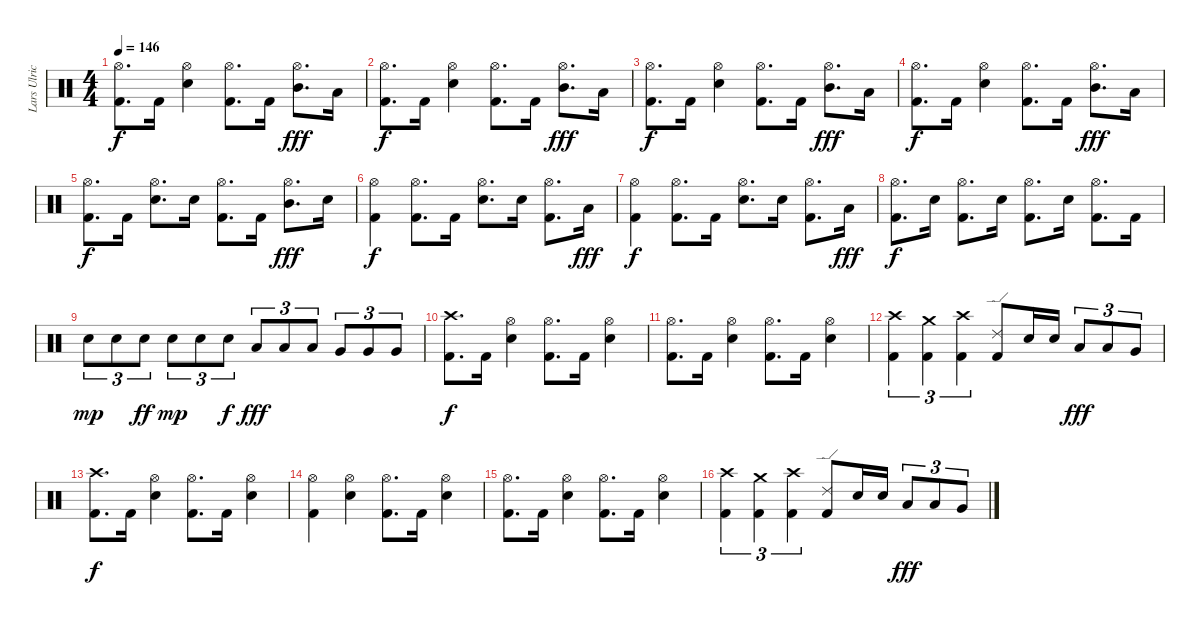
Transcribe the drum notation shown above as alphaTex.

\track ("Lars Ulrich" "Lars Ulric") {instrument percussion}
\staff {score}
\articulation defaults
\ts (4 4)
\tempo 146
\clef neutral
\ks c
("Hi-Hat (open)" "Kick (hit) 2").8{d dy f} "Kick (hit) 2".16 ("Hi-Hat (open)" "Electric Snare (hit)").4 ("Hi-Hat (open)" "Kick (hit) 2").8{d} "Kick (hit) 2".16 ("Hi-Hat (open)" "Mid Tom (hit)").8{d dy fff} "Low Tom (hit)".16 |
("Hi-Hat (open)" "Kick (hit) 2").8{d dy f} "Kick (hit) 2".16 ("Hi-Hat (open)" "Electric Snare (hit)").4 ("Hi-Hat (open)" "Kick (hit) 2").8{d} "Kick (hit) 2".16 ("Hi-Hat (open)" "Mid Tom (hit)").8{d dy fff} "Low Tom (hit)".16 |
("Hi-Hat (open)" "Kick (hit) 2").8{d dy f} "Kick (hit) 2".16 ("Hi-Hat (open)" "Electric Snare (hit)").4 ("Hi-Hat (open)" "Kick (hit) 2").8{d} "Kick (hit) 2".16 ("Hi-Hat (open)" "Mid Tom (hit)").8{d dy fff} "Low Tom (hit)".16 |
("Hi-Hat (open)" "Kick (hit) 2").8{d dy f} "Kick (hit) 2".16 ("Hi-Hat (open)" "Electric Snare (hit)").4 ("Hi-Hat (open)" "Kick (hit) 2").8{d} "Kick (hit) 2".16 ("Hi-Hat (open)" "Mid Tom (hit)").8{d dy fff} "Low Tom (hit)".16 |
("Hi-Hat (open)" "Kick (hit) 2").8{d dy f} "Kick (hit) 2".16 ("Hi-Hat (open)" "Electric Snare (hit)").8{d} "Electric Snare (hit)".16 ("Hi-Hat (open)" "Kick (hit) 2").8{d} "Kick (hit) 2".16 ("Hi-Hat (open)" "Mid Tom (hit)").8{d dy fff} "Electric Snare (hit)".16 |
("Hi-Hat (open)" "Kick (hit) 2").4{dy f} ("Hi-Hat (open)" "Kick (hit) 2").8{d} "Kick (hit) 2".16 ("Hi-Hat (open)" "Electric Snare (hit)").8{d} "Electric Snare (hit)".16 ("Hi-Hat (open)" "Kick (hit) 2").8{d} "Low Tom (hit)".16{dy fff} |
("Hi-Hat (open)" "Kick (hit) 2").4{dy f} ("Hi-Hat (open)" "Kick (hit) 2").8{d} "Kick (hit) 2".16 ("Hi-Hat (open)" "Electric Snare (hit)").8{d} "Electric Snare (hit)".16 ("Hi-Hat (open)" "Kick (hit) 2").8{d} "Low Tom (hit)".16{dy fff} |
("Hi-Hat (open)" "Kick (hit) 2").8{d dy f} "Electric Snare (hit)".16 ("Hi-Hat (open)" "Kick (hit) 2").8{d} "Electric Snare (hit)".16 ("Hi-Hat (open)" "Kick (hit) 2").8{d} "Electric Snare (hit)".16 ("Hi-Hat (open)" "Kick (hit) 2").8{d} "Kick (hit) 2".16 |
"Electric Snare (hit)".8{tu (3 2) dy mp} "Electric Snare (hit)".8{tu (3 2)} "Electric Snare (hit)".8{tu (3 2) dy ff} "Electric Snare (hit)".8{tu (3 2) dy mp} "Electric Snare (hit)".8{tu (3 2)} "Electric Snare (hit)".8{tu (3 2) dy f} "Low Tom (hit)".8{tu (3 2) dy fff} "Low Tom (hit)".8{tu (3 2)} "Low Tom (hit)".8{tu (3 2)} "Very Low Tom (hit)".8{tu (3 2)} "Very Low Tom (hit)".8{tu (3 2)} "Very Low Tom (hit)".8{tu (3 2)} |
("Crash high (hit)" "Kick (hit) 2").8{d dy f} "Kick (hit) 2".16 ("Hi-Hat (open)" "Electric Snare (hit)").4 ("Hi-Hat (open)" "Kick (hit) 2").8{d} "Kick (hit) 2".16 ("Hi-Hat (open)" "Electric Snare (hit)").4 |
("Hi-Hat (open)" "Kick (hit) 2").8{d} "Kick (hit) 2".16 ("Hi-Hat (open)" "Electric Snare (hit)").4 ("Hi-Hat (open)" "Kick (hit) 2").8{d} "Kick (hit) 2".16 ("Hi-Hat (open)" "Electric Snare (hit)").4 |
("Crash high (hit)" "Kick (hit) 2").4{tu (3 2)} ("Crash medium (hit)" "Kick (hit) 2").4{tu (3 2)} ("Crash high (hit)" "Kick (hit) 2").4{tu (3 2)} ("Ride (edge) 2" "Kick (hit) 2").8 "Electric Snare (hit)".16 "Electric Snare (hit)".16 "Low Tom (hit)".8{tu (3 2) dy fff} "Low Tom (hit)".8{tu (3 2)} "Very Low Tom (hit)".8{tu (3 2)} |
("Crash high (hit)" "Kick (hit) 2").8{d dy f} "Kick (hit) 2".16 ("Hi-Hat (open)" "Electric Snare (hit)").4 ("Hi-Hat (open)" "Kick (hit) 2").8{d} "Kick (hit) 2".16 ("Hi-Hat (open)" "Electric Snare (hit)").4 |
("Hi-Hat (open)" "Kick (hit) 2").4 ("Hi-Hat (open)" "Electric Snare (hit)").4 ("Hi-Hat (open)" "Kick (hit) 2").8{d} "Kick (hit) 2".16 ("Hi-Hat (open)" "Electric Snare (hit)").4 |
("Hi-Hat (open)" "Kick (hit) 2").8{d} "Kick (hit) 2".16 ("Hi-Hat (open)" "Electric Snare (hit)").4 ("Hi-Hat (open)" "Kick (hit) 2").8{d} "Kick (hit) 2".16 ("Hi-Hat (open)" "Electric Snare (hit)").4 |
("Crash high (hit)" "Kick (hit) 2").4{tu (3 2)} ("Crash medium (hit)" "Kick (hit) 2").4{tu (3 2)} ("Crash high (hit)" "Kick (hit) 2").4{tu (3 2)} ("Ride (edge) 2" "Kick (hit) 2").8 "Electric Snare (hit)".16 "Electric Snare (hit)".16 "Low Tom (hit)".8{tu (3 2) dy fff} "Low Tom (hit)".8{tu (3 2)} "Very Low Tom (hit)".8{tu (3 2)}
